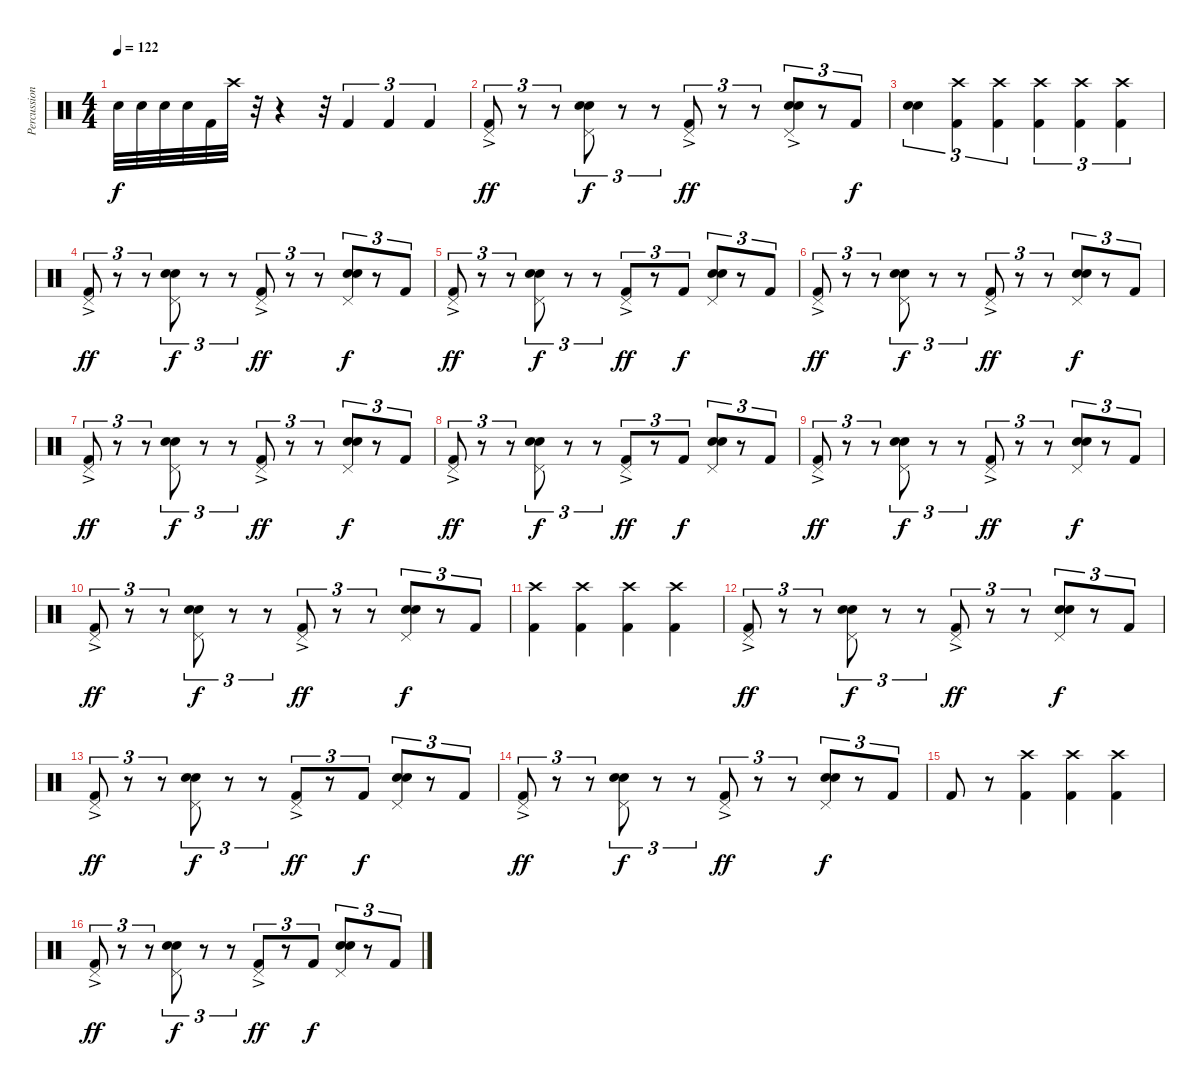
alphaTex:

\track ("Percussion" "Percussion") {instrument percussion}
\staff {score}
\articulation defaults
\ts (4 4)
\tempo 122
\clef neutral
\ks c "Electric Snare (hit)".32{dy f} "Electric Snare (hit)".32 "Electric Snare (hit)".32 "Electric Snare (hit)".32 "Kick (hit) 2".32 "Crash high (hit)".32
r.32 r.4 r.32 "Kick (hit) 2".4{tu (3 2)} "Kick (hit) 2".4{tu (3 2)} "Kick (hit) 2".4{tu (3 2)} |
("Pedal Hi-Hat (hit)"{ac} "Kick (hit) 2").8{tu (3 2) dy ff} r.8{tu (3 2)} r.8{tu (3 2)} ("Pedal Hi-Hat (hit)" "Snare (hit) 2" "Electric Snare (hit)").8{tu (3 2) dy f} r.8{tu (3 2)} r.8{tu (3 2)} ("Pedal Hi-Hat (hit)"{ac} "Kick (hit) 2").8{tu (3 2) dy ff} r.8{tu (3 2)} r.8{tu (3 2)} ("Pedal Hi-Hat (hit)"{ac} "Snare (hit) 2" "Electric Snare (hit)").8{tu (3 2)} r.8{tu (3 2)} "Kick (hit) 2".8{tu (3 2) dy f} |
("Snare (hit) 2" "Electric Snare (hit)").4{tu (3 2)} ("Crash high (hit)" "Kick (hit) 2").4{tu (3 2)} ("Crash high (hit)" "Kick (hit) 2").4{tu (3 2)} ("Crash high (hit)" "Kick (hit) 2").4{tu (3 2)} ("Crash high (hit)" "Kick (hit) 2").4{tu (3 2)} ("Crash high (hit)" "Kick (hit) 2").4{tu (3 2)} |
("Pedal Hi-Hat (hit)"{ac} "Kick (hit) 2").8{tu (3 2) dy ff} r.8{tu (3 2)} r.8{tu (3 2)} ("Pedal Hi-Hat (hit)" "Snare (hit) 2" "Electric Snare (hit)").8{tu (3 2) dy f} r.8{tu (3 2)} r.8{tu (3 2)} ("Pedal Hi-Hat (hit)"{ac} "Kick (hit) 2").8{tu (3 2) dy ff} r.8{tu (3 2)} r.8{tu (3 2)} ("Pedal Hi-Hat (hit)" "Snare (hit) 2" "Electric Snare (hit)").8{tu (3 2) dy f} r.8{tu (3 2)} "Kick (hit) 2".8{tu (3 2)} |
("Pedal Hi-Hat (hit)"{ac} "Kick (hit) 2").8{tu (3 2) dy ff} r.8{tu (3 2)} r.8{tu (3 2)} ("Pedal Hi-Hat (hit)" "Snare (hit) 2" "Electric Snare (hit)").8{tu (3 2) dy f} r.8{tu (3 2)} r.8{tu (3 2)} ("Pedal Hi-Hat (hit)"{ac} "Kick (hit) 2").8{tu (3 2) dy ff} r.8{tu (3 2)} "Kick (hit) 2".8{tu (3 2) dy f} ("Pedal Hi-Hat (hit)" "Snare (hit) 2" "Electric Snare (hit)").8{tu (3 2)} r.8{tu (3 2)} "Kick (hit) 2".8{tu (3 2)} |
("Pedal Hi-Hat (hit)"{ac} "Kick (hit) 2").8{tu (3 2) dy ff} r.8{tu (3 2)} r.8{tu (3 2)} ("Pedal Hi-Hat (hit)" "Snare (hit) 2" "Electric Snare (hit)").8{tu (3 2) dy f} r.8{tu (3 2)} r.8{tu (3 2)} ("Pedal Hi-Hat (hit)"{ac} "Kick (hit) 2").8{tu (3 2) dy ff} r.8{tu (3 2)} r.8{tu (3 2)} ("Pedal Hi-Hat (hit)" "Snare (hit) 2" "Electric Snare (hit)").8{tu (3 2) dy f} r.8{tu (3 2)} "Kick (hit) 2".8{tu (3 2)} |
("Pedal Hi-Hat (hit)"{ac} "Kick (hit) 2").8{tu (3 2) dy ff} r.8{tu (3 2)} r.8{tu (3 2)} ("Pedal Hi-Hat (hit)" "Snare (hit) 2" "Electric Snare (hit)").8{tu (3 2) dy f} r.8{tu (3 2)} r.8{tu (3 2)} ("Pedal Hi-Hat (hit)"{ac} "Kick (hit) 2").8{tu (3 2) dy ff} r.8{tu (3 2)} r.8{tu (3 2)} ("Pedal Hi-Hat (hit)" "Snare (hit) 2" "Electric Snare (hit)").8{tu (3 2) dy f} r.8{tu (3 2)} "Kick (hit) 2".8{tu (3 2)} |
("Pedal Hi-Hat (hit)"{ac} "Kick (hit) 2").8{tu (3 2) dy ff} r.8{tu (3 2)} r.8{tu (3 2)} ("Pedal Hi-Hat (hit)" "Snare (hit) 2" "Electric Snare (hit)").8{tu (3 2) dy f} r.8{tu (3 2)} r.8{tu (3 2)} ("Pedal Hi-Hat (hit)"{ac} "Kick (hit) 2").8{tu (3 2) dy ff} r.8{tu (3 2)} "Kick (hit) 2".8{tu (3 2) dy f} ("Pedal Hi-Hat (hit)" "Snare (hit) 2" "Electric Snare (hit)").8{tu (3 2)} r.8{tu (3 2)} "Kick (hit) 2".8{tu (3 2)} |
("Pedal Hi-Hat (hit)"{ac} "Kick (hit) 2").8{tu (3 2) dy ff} r.8{tu (3 2)} r.8{tu (3 2)} ("Pedal Hi-Hat (hit)" "Snare (hit) 2" "Electric Snare (hit)").8{tu (3 2) dy f} r.8{tu (3 2)} r.8{tu (3 2)} ("Pedal Hi-Hat (hit)"{ac} "Kick (hit) 2").8{tu (3 2) dy ff} r.8{tu (3 2)} r.8{tu (3 2)} ("Pedal Hi-Hat (hit)" "Snare (hit) 2" "Electric Snare (hit)").8{tu (3 2) dy f} r.8{tu (3 2)} "Kick (hit) 2".8{tu (3 2)} |
("Pedal Hi-Hat (hit)"{ac} "Kick (hit) 2").8{tu (3 2) dy ff} r.8{tu (3 2)} r.8{tu (3 2)} ("Pedal Hi-Hat (hit)" "Snare (hit) 2" "Electric Snare (hit)").8{tu (3 2) dy f} r.8{tu (3 2)} r.8{tu (3 2)} ("Pedal Hi-Hat (hit)"{ac} "Kick (hit) 2").8{tu (3 2) dy ff} r.8{tu (3 2)} r.8{tu (3 2)} ("Pedal Hi-Hat (hit)" "Snare (hit) 2" "Electric Snare (hit)").8{tu (3 2) dy f} r.8{tu (3 2)} "Kick (hit) 2".8{tu (3 2)} |
("Crash high (hit)" "Kick (hit) 2").4 ("Crash high (hit)" "Kick (hit) 2").4 ("Crash high (hit)" "Kick (hit) 2").4 ("Crash high (hit)" "Kick (hit) 2").4 |
("Pedal Hi-Hat (hit)"{ac} "Kick (hit) 2").8{tu (3 2) dy ff} r.8{tu (3 2)} r.8{tu (3 2)} ("Pedal Hi-Hat (hit)" "Snare (hit) 2" "Electric Snare (hit)").8{tu (3 2) dy f} r.8{tu (3 2)} r.8{tu (3 2)} ("Pedal Hi-Hat (hit)"{ac} "Kick (hit) 2").8{tu (3 2) dy ff} r.8{tu (3 2)} r.8{tu (3 2)} ("Pedal Hi-Hat (hit)" "Snare (hit) 2" "Electric Snare (hit)").8{tu (3 2) dy f} r.8{tu (3 2)} "Kick (hit) 2".8{tu (3 2)} |
("Pedal Hi-Hat (hit)"{ac} "Kick (hit) 2").8{tu (3 2) dy ff} r.8{tu (3 2)} r.8{tu (3 2)} ("Pedal Hi-Hat (hit)" "Snare (hit) 2" "Electric Snare (hit)").8{tu (3 2) dy f} r.8{tu (3 2)} r.8{tu (3 2)} ("Pedal Hi-Hat (hit)"{ac} "Kick (hit) 2").8{tu (3 2) dy ff} r.8{tu (3 2)} "Kick (hit) 2".8{tu (3 2) dy f} ("Pedal Hi-Hat (hit)" "Snare (hit) 2" "Electric Snare (hit)").8{tu (3 2)} r.8{tu (3 2)} "Kick (hit) 2".8{tu (3 2)} |
("Pedal Hi-Hat (hit)"{ac} "Kick (hit) 2").8{tu (3 2) dy ff} r.8{tu (3 2)} r.8{tu (3 2)} ("Pedal Hi-Hat (hit)" "Snare (hit) 2" "Electric Snare (hit)").8{tu (3 2) dy f} r.8{tu (3 2)} r.8{tu (3 2)} ("Pedal Hi-Hat (hit)"{ac} "Kick (hit) 2").8{tu (3 2) dy ff} r.8{tu (3 2)} r.8{tu (3 2)} ("Pedal Hi-Hat (hit)" "Snare (hit) 2" "Electric Snare (hit)").8{tu (3 2) dy f} r.8{tu (3 2)} "Kick (hit) 2".8{tu (3 2)} |
"Kick (hit) 2".8 r.8 ("Crash high (hit)" "Kick (hit) 2").4 ("Crash high (hit)" "Kick (hit) 2").4 ("Crash high (hit)" "Kick (hit) 2").4 |
("Pedal Hi-Hat (hit)"{ac} "Kick (hit) 2").8{tu (3 2) dy ff} r.8{tu (3 2)} r.8{tu (3 2)} ("Pedal Hi-Hat (hit)" "Snare (hit) 2" "Electric Snare (hit)").8{tu (3 2) dy f} r.8{tu (3 2)} r.8{tu (3 2)} ("Pedal Hi-Hat (hit)"{ac} "Kick (hit) 2").8{tu (3 2) dy ff} r.8{tu (3 2)} "Kick (hit) 2".8{tu (3 2) dy f} ("Pedal Hi-Hat (hit)" "Snare (hit) 2" "Electric Snare (hit)").8{tu (3 2)} r.8{tu (3 2)} "Kick (hit) 2".8{tu (3 2)}
